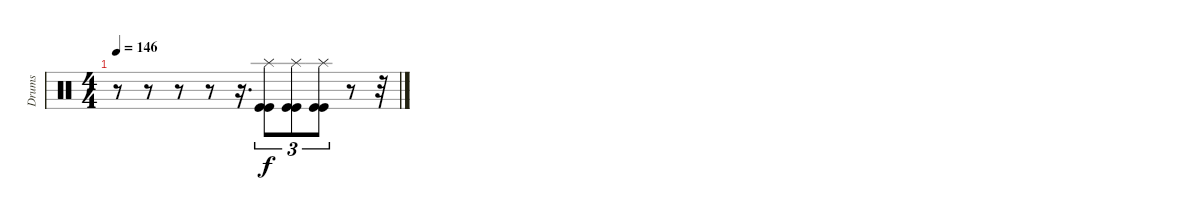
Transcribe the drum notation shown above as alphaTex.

\track ("Drums" "Drums") {instrument percussion}
\staff {score}
\articulation defaults
\ts (4 4)
\tempo 146
\clef neutral
\ks c
r.8{dy f} r.8 r.8 r.8 r.16{d} ("Splash (hit)" "Kick (hit)" "Kick (hit)").8{tu (3 2)} ("Splash (hit)" "Kick (hit)" "Kick (hit)").8{tu (3 2)} ("Splash (hit)" "Kick (hit)" "Kick (hit)").8{tu (3 2)} r.8 r.32
